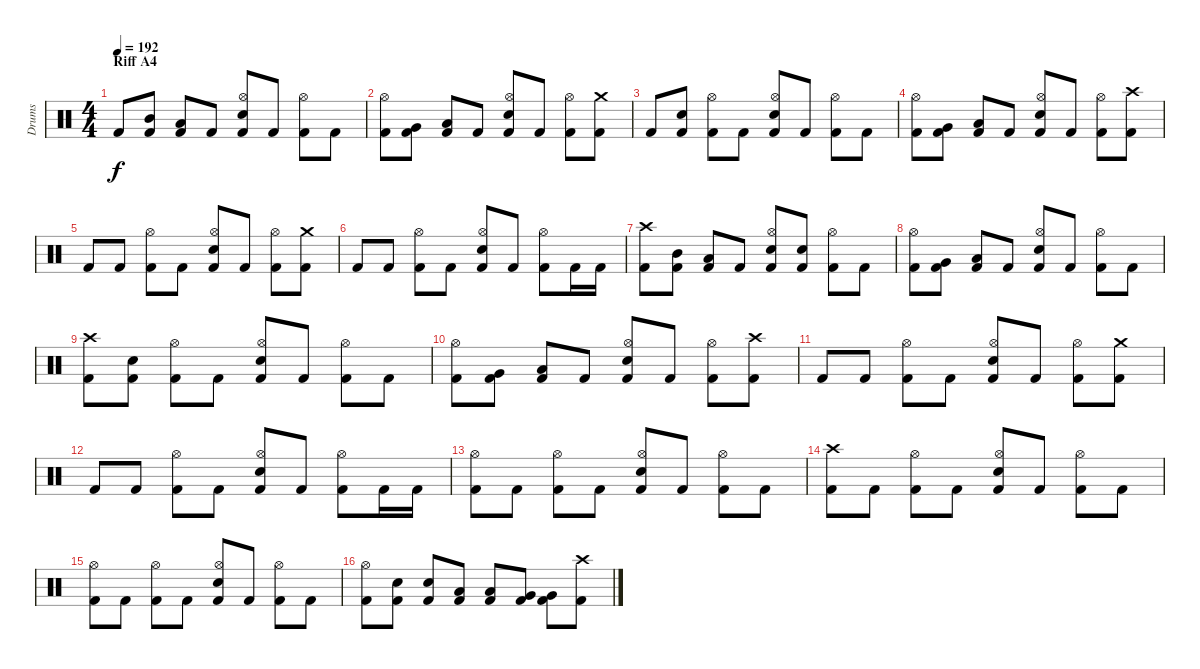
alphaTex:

\track ("Drums" "Drums") {instrument percussion}
\staff {score}
\articulation defaults
\ts (4 4)
\section ("" "Riff A4")
\tempo 192
\clef neutral
\ks c "Kick (hit) 2".8{dy f}
("Mid Tom (hit)" "Kick (hit) 2").8 ("Low Tom (hit)" "Kick (hit) 2").8 "Kick (hit) 2".8 ("Hi-Hat (open)" "Snare (hit) 2" "Kick (hit) 2").8 "Kick (hit) 2".8 ("Hi-Hat (open)" "Kick (hit) 2").8 "Kick (hit) 2".8 |
("Hi-Hat (open)" "Kick (hit) 2").8 ("Very Low Tom (hit)" "Kick (hit) 2").8 ("Low Floor Tom (hit)" "Kick (hit) 2").8 "Kick (hit) 2".8 ("Hi-Hat (open)" "Snare (hit) 2" "Kick (hit) 2").8 "Kick (hit) 2".8 ("Hi-Hat (open)" "Kick (hit) 2").8 ("Crash medium (hit)" "Kick (hit) 2").8 |
"Kick (hit) 2".8 ("Snare (hit) 2" "Kick (hit) 2").8 ("Hi-Hat (open)" "Kick (hit) 2").8 "Kick (hit) 2".8 ("Hi-Hat (open)" "Snare (hit) 2" "Kick (hit) 2").8 "Kick (hit) 2".8 ("Hi-Hat (open)" "Kick (hit) 2").8 "Kick (hit) 2".8 |
("Hi-Hat (open)" "Kick (hit) 2").8 ("Very Low Tom (hit)" "Kick (hit) 2").8 ("Low Floor Tom (hit)" "Kick (hit) 2").8 "Kick (hit) 2".8 ("Hi-Hat (open)" "Snare (hit) 2" "Kick (hit) 2").8 "Kick (hit) 2".8 ("Hi-Hat (open)" "Kick (hit) 2").8 ("Crash high (hit)" "Kick (hit) 2").8 |
"Kick (hit) 2".8 "Kick (hit) 2".8 ("Hi-Hat (open)" "Kick (hit) 2").8 "Kick (hit) 2".8 ("Hi-Hat (open)" "Snare (hit) 2" "Kick (hit) 2").8 "Kick (hit) 2".8 ("Hi-Hat (open)" "Kick (hit) 2").8 ("Crash medium (hit)" "Kick (hit) 2").8 |
"Kick (hit) 2".8 "Kick (hit) 2".8 ("Hi-Hat (open)" "Kick (hit) 2").8 "Kick (hit) 2".8 ("Hi-Hat (open)" "Snare (hit) 2" "Kick (hit) 2").8 "Kick (hit) 2".8 ("Hi-Hat (open)" "Kick (hit) 2").8 "Kick (hit) 2".16 "Kick (hit) 2".16 |
("Crash high (hit)" "Kick (hit) 2").8 ("Mid Tom (hit)" "Kick (hit) 2").8 ("Low Tom (hit)" "Kick (hit) 2").8 "Kick (hit) 2".8 ("Hi-Hat (open)" "Snare (hit) 2" "Kick (hit) 2").8 ("Snare (hit) 2" "Kick (hit) 2").8 ("Hi-Hat (open)" "Kick (hit) 2").8 "Kick (hit) 2".8 |
("Hi-Hat (open)" "Kick (hit) 2").8 ("Very Low Tom (hit)" "Kick (hit) 2").8 ("Low Floor Tom (hit)" "Kick (hit) 2").8 "Kick (hit) 2".8 ("Hi-Hat (open)" "Snare (hit) 2" "Kick (hit) 2").8 "Kick (hit) 2".8 ("Hi-Hat (open)" "Kick (hit) 2").8 "Kick (hit) 2".8 |
("Crash high (hit)" "Kick (hit) 2").8 ("Snare (hit) 2" "Kick (hit) 2").8 ("Hi-Hat (open)" "Kick (hit) 2").8 "Kick (hit) 2".8 ("Hi-Hat (open)" "Snare (hit) 2" "Kick (hit) 2").8 "Kick (hit) 2".8 ("Hi-Hat (open)" "Kick (hit) 2").8 "Kick (hit) 2".8 |
("Hi-Hat (open)" "Kick (hit) 2").8 ("Very Low Tom (hit)" "Kick (hit) 2").8 ("Low Floor Tom (hit)" "Kick (hit) 2").8 "Kick (hit) 2".8 ("Hi-Hat (open)" "Snare (hit) 2" "Kick (hit) 2").8 "Kick (hit) 2".8 ("Hi-Hat (open)" "Kick (hit) 2").8 ("Crash high (hit)" "Kick (hit) 2").8 |
"Kick (hit) 2".8 "Kick (hit) 2".8 ("Hi-Hat (open)" "Kick (hit) 2").8 "Kick (hit) 2".8 ("Hi-Hat (open)" "Snare (hit) 2" "Kick (hit) 2").8 "Kick (hit) 2".8 ("Hi-Hat (open)" "Kick (hit) 2").8 ("Crash medium (hit)" "Kick (hit) 2").8 |
"Kick (hit) 2".8 "Kick (hit) 2".8 ("Hi-Hat (open)" "Kick (hit) 2").8 "Kick (hit) 2".8 ("Hi-Hat (open)" "Snare (hit) 2" "Kick (hit) 2").8 "Kick (hit) 2".8 ("Hi-Hat (open)" "Kick (hit) 2").8 "Kick (hit) 2".16 "Kick (hit) 2".16 |
("Hi-Hat (open)" "Kick (hit) 2").8 "Kick (hit) 2".8 ("Hi-Hat (open)" "Kick (hit) 2").8 "Kick (hit) 2".8 ("Hi-Hat (open)" "Snare (hit) 2" "Kick (hit) 2").8 "Kick (hit) 2".8 ("Hi-Hat (open)" "Kick (hit) 2").8 "Kick (hit) 2".8 |
("Crash high (hit)" "Kick (hit) 2").8 "Kick (hit) 2".8 ("Hi-Hat (open)" "Kick (hit) 2").8 "Kick (hit) 2".8 ("Hi-Hat (open)" "Snare (hit) 2" "Kick (hit) 2").8 "Kick (hit) 2".8 ("Hi-Hat (open)" "Kick (hit) 2").8 "Kick (hit) 2".8 |
("Hi-Hat (open)" "Kick (hit) 2").8 "Kick (hit) 2".8 ("Hi-Hat (open)" "Kick (hit) 2").8 "Kick (hit) 2".8 ("Hi-Hat (open)" "Snare (hit) 2" "Kick (hit) 2").8 "Kick (hit) 2".8 ("Hi-Hat (open)" "Kick (hit) 2").8 "Kick (hit) 2".8 |
("Hi-Hat (open)" "Kick (hit) 2").8 ("Snare (hit) 2" "Kick (hit) 2").8 ("Snare (hit) 2" "Kick (hit) 2").8 ("Low Tom (hit)" "Kick (hit) 2").8 ("Low Tom (hit)" "Kick (hit) 2").8 ("Very Low Tom (hit)" "Kick (hit) 2").8 ("Very Low Tom (hit)" "Kick (hit) 2").8 ("Crash high (hit)" "Kick (hit) 2").8
